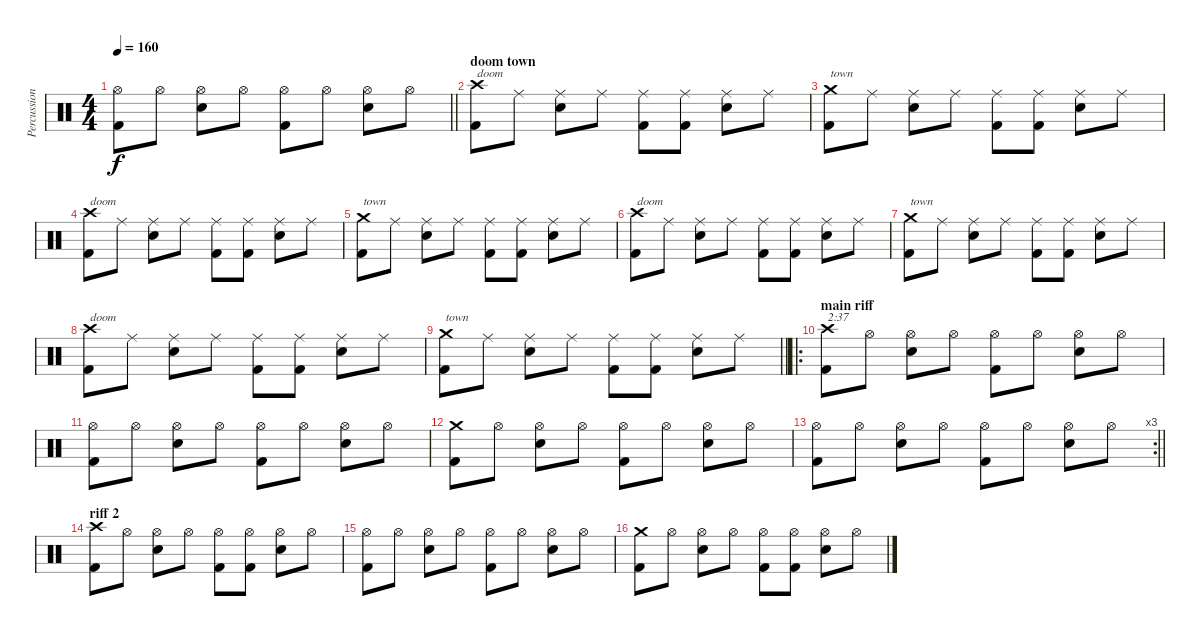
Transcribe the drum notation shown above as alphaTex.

\track ("Percussion 2 var" "Percussion") {mute instrument percussion}
\staff {score}
\articulation defaults
\ts (4 4)
\tempo 160
\clef neutral
\barLineRight lightlight
\ks c
("Hi-Hat (open)" "Kick (hit) 2").8{dy f} "Hi-Hat (open)".8 ("Hi-Hat (open)" "Snare (hit) 2").8 "Hi-Hat (open)".8 ("Hi-Hat (open)" "Kick (hit) 2").8 "Hi-Hat (open)".8 ("Hi-Hat (open)" "Snare (hit) 2").8 "Hi-Hat (open)".8 |
\section ("" "doom town")
("Crash high (hit)" "Kick (hit) 2").8{txt "doom"} "Ride (middle)".8 ("Ride (middle)" "Snare (hit) 2").8 "Ride (middle)".8 ("Ride (middle)" "Kick (hit) 2").8 ("Ride (middle)" "Kick (hit) 2").8 ("Ride (middle)" "Snare (hit) 2").8 "Ride (middle)".8 |
("Crash medium (hit)" "Kick (hit) 2").8{txt "town"} "Ride (middle)".8 ("Ride (middle)" "Snare (hit) 2").8 "Ride (middle)".8 ("Ride (middle)" "Kick (hit) 2").8 ("Ride (middle)" "Kick (hit) 2").8 ("Ride (middle)" "Snare (hit) 2").8 "Ride (middle)".8 |
("Crash high (hit)" "Kick (hit) 2").8{txt "doom"} "Ride (middle)".8 ("Ride (middle)" "Snare (hit) 2").8 "Ride (middle)".8 ("Ride (middle)" "Kick (hit) 2").8 ("Ride (middle)" "Kick (hit) 2").8 ("Ride (middle)" "Snare (hit) 2").8 "Ride (middle)".8 |
("Crash medium (hit)" "Kick (hit) 2").8{txt "town"} "Ride (middle)".8 ("Ride (middle)" "Snare (hit) 2").8 "Ride (middle)".8 ("Ride (middle)" "Kick (hit) 2").8 ("Ride (middle)" "Kick (hit) 2").8 ("Ride (middle)" "Snare (hit) 2").8 "Ride (middle)".8 |
("Crash high (hit)" "Kick (hit) 2").8{txt "doom"} "Ride (middle)".8 ("Ride (middle)" "Snare (hit) 2").8 "Ride (middle)".8 ("Ride (middle)" "Kick (hit) 2").8 ("Ride (middle)" "Kick (hit) 2").8 ("Ride (middle)" "Snare (hit) 2").8 "Ride (middle)".8 |
("Crash medium (hit)" "Kick (hit) 2").8{txt "town"} "Ride (middle)".8 ("Ride (middle)" "Snare (hit) 2").8 "Ride (middle)".8 ("Ride (middle)" "Kick (hit) 2").8 ("Ride (middle)" "Kick (hit) 2").8 ("Ride (middle)" "Snare (hit) 2").8 "Ride (middle)".8 |
("Crash high (hit)" "Kick (hit) 2").8{txt "doom"} "Ride (middle)".8 ("Ride (middle)" "Snare (hit) 2").8 "Ride (middle)".8 ("Ride (middle)" "Kick (hit) 2").8 ("Ride (middle)" "Kick (hit) 2").8 ("Ride (middle)" "Snare (hit) 2").8 "Ride (middle)".8 |
\barLineRight lightlight
("Crash medium (hit)" "Kick (hit) 2").8{txt "town"} "Ride (middle)".8 ("Ride (middle)" "Snare (hit) 2").8 "Ride (middle)".8 ("Ride (middle)" "Kick (hit) 2").8 ("Ride (middle)" "Kick (hit) 2").8 ("Ride (middle)" "Snare (hit) 2").8 "Ride (middle)".8 |
\ro
\section ("" "main riff")
("Crash high (hit)" "Kick (hit) 2").8{txt "2:37"} "Hi-Hat (open)".8 ("Hi-Hat (open)" "Snare (hit) 2").8 "Hi-Hat (open)".8 ("Hi-Hat (open)" "Kick (hit) 2").8 "Hi-Hat (open)".8 ("Hi-Hat (open)" "Snare (hit) 2").8 "Hi-Hat (open)".8 |
("Hi-Hat (open)" "Kick (hit) 2").8 "Hi-Hat (open)".8 ("Hi-Hat (open)" "Snare (hit) 2").8 "Hi-Hat (open)".8 ("Hi-Hat (open)" "Kick (hit) 2").8 "Hi-Hat (open)".8 ("Hi-Hat (open)" "Snare (hit) 2").8 "Hi-Hat (open)".8 |
("Crash medium (hit)" "Kick (hit) 2").8 "Hi-Hat (open)".8 ("Hi-Hat (open)" "Snare (hit) 2").8 "Hi-Hat (open)".8 ("Hi-Hat (open)" "Kick (hit) 2").8 "Hi-Hat (open)".8 ("Hi-Hat (open)" "Snare (hit) 2").8 "Hi-Hat (open)".8 |
\rc 3
\barLineRight lightlight
("Hi-Hat (open)" "Kick (hit) 2").8 "Hi-Hat (open)".8 ("Hi-Hat (open)" "Snare (hit) 2").8 "Hi-Hat (open)".8 ("Hi-Hat (open)" "Kick (hit) 2").8 "Hi-Hat (open)".8 ("Hi-Hat (open)" "Snare (hit) 2").8 "Hi-Hat (open)".8 |
\section ("" "riff 2")
("Crash high (hit)" "Kick (hit) 2").8 "Hi-Hat (open)".8 ("Hi-Hat (open)" "Snare (hit) 2").8 "Hi-Hat (open)".8 ("Hi-Hat (open)" "Kick (hit) 2").8 ("Hi-Hat (open)" "Kick (hit) 2").8 ("Hi-Hat (open)" "Snare (hit) 2").8 "Hi-Hat (open)".8 |
("Hi-Hat (open)" "Kick (hit) 2").8 "Hi-Hat (open)".8 ("Hi-Hat (open)" "Snare (hit) 2").8 "Hi-Hat (open)".8 ("Hi-Hat (open)" "Kick (hit) 2").8 "Hi-Hat (open)".8 ("Hi-Hat (open)" "Snare (hit) 2").8 "Hi-Hat (open)".8 |
("Crash medium (hit)" "Kick (hit) 2").8 "Hi-Hat (open)".8 ("Hi-Hat (open)" "Snare (hit) 2").8 "Hi-Hat (open)".8 ("Hi-Hat (open)" "Kick (hit) 2").8 ("Hi-Hat (open)" "Kick (hit) 2").8 ("Hi-Hat (open)" "Snare (hit) 2").8 "Hi-Hat (open)".8
